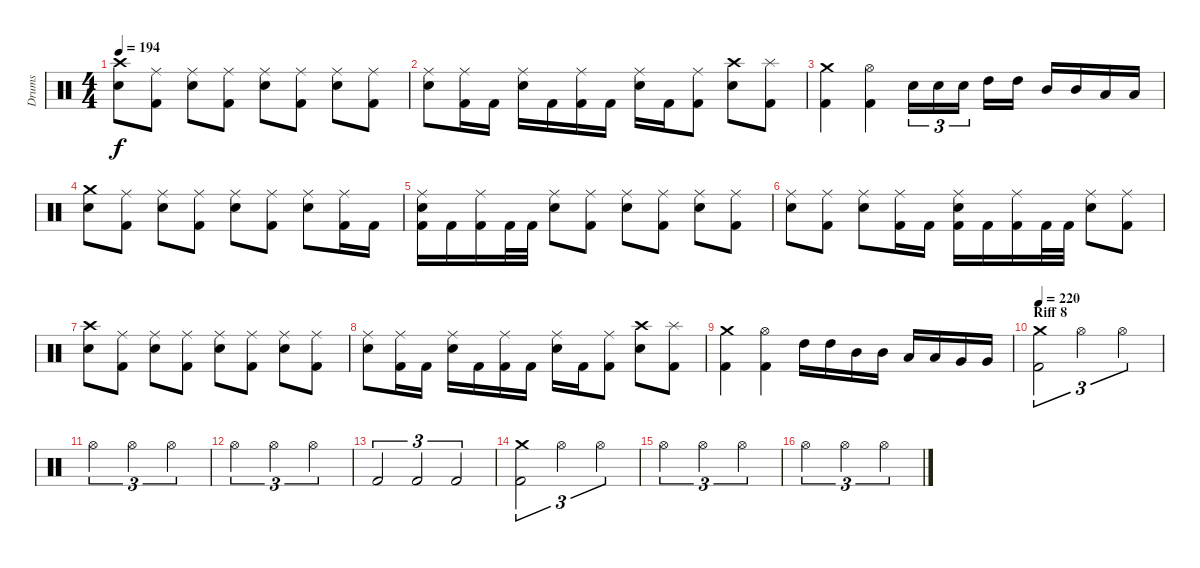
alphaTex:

\track ("Drums" "Drums") {instrument percussion}
\staff {score}
\articulation defaults
\ts (4 4)
\tempo 194
\clef neutral
\ks c
("Crash high (hit)" "Electric Snare (hit)").8{dy f} ("Ride (middle)" "Kick (hit) 2").8 ("Ride (middle)" "Electric Snare (hit)").8 ("Ride (middle)" "Kick (hit) 2").8 ("Ride (middle)" "Electric Snare (hit)").8 ("Ride (middle)" "Kick (hit) 2").8 ("Ride (middle)" "Electric Snare (hit)").8 ("Ride (middle)" "Kick (hit) 2").8 |
("Ride (middle)" "Electric Snare (hit)").8 ("Ride (middle)" "Kick (hit) 2").16 "Kick (hit) 2".16 ("Ride (middle)" "Electric Snare (hit)").16 "Kick (hit) 2".16 ("Ride (middle)" "Kick (hit) 2").16 "Kick (hit) 2".16 ("Ride (middle)" "Electric Snare (hit)").16 "Kick (hit) 2".16 ("Ride (middle)" "Kick (hit) 2").8 ("Crash high (hit)" "Electric Snare (hit)").8 ("Splash (hit)" "Kick (hit) 2").8 |
("Crash medium (hit)" "Kick (hit) 2").4 ("Hi-Hat (open)" "Kick (hit) 2").4 "Electric Snare (hit)".16{tu (3 2)} "Electric Snare (hit)".16{tu (3 2)} "Electric Snare (hit)".16{tu (3 2)} "High Tom (hit)".16 "High Tom (hit)".16 "Mid Tom (hit)".16 "Mid Tom (hit)".16 "Low Tom (hit)".16 "Low Tom (hit)".16 |
("Crash medium (hit)" "Electric Snare (hit)").8 ("Ride (middle)" "Kick (hit) 2").8 ("Ride (middle)" "Electric Snare (hit)").8 ("Ride (middle)" "Kick (hit) 2").8 ("Ride (middle)" "Electric Snare (hit)").8 ("Ride (middle)" "Kick (hit) 2").8 ("Ride (middle)" "Electric Snare (hit)").8 ("Ride (middle)" "Kick (hit) 2").16 "Kick (hit) 2".16 |
("Ride (middle)" "Electric Snare (hit)" "Kick (hit) 2").16 "Kick (hit) 2".16 ("Ride (middle)" "Kick (hit) 2").16 "Kick (hit) 2".32 "Kick (hit) 2".32 ("Ride (middle)" "Electric Snare (hit)").8 ("Ride (middle)" "Kick (hit) 2").8 ("Ride (middle)" "Electric Snare (hit)").8 ("Ride (middle)" "Kick (hit) 2").8 ("Ride (middle)" "Electric Snare (hit)").8 ("Ride (middle)" "Kick (hit) 2").8 |
("Ride (middle)" "Electric Snare (hit)").8 ("Ride (middle)" "Kick (hit) 2").8 ("Ride (middle)" "Electric Snare (hit)").8 ("Ride (middle)" "Kick (hit) 2").16 "Kick (hit) 2".16 ("Ride (middle)" "Electric Snare (hit)" "Kick (hit) 2").16 "Kick (hit) 2".16 ("Ride (middle)" "Kick (hit) 2").16 "Kick (hit) 2".32 "Kick (hit) 2".32 ("Ride (middle)" "Electric Snare (hit)").8 ("Ride (middle)" "Kick (hit) 2").8 |
("Crash high (hit)" "Electric Snare (hit)").8 ("Ride (middle)" "Kick (hit) 2").8 ("Ride (middle)" "Electric Snare (hit)").8 ("Ride (middle)" "Kick (hit) 2").8 ("Ride (middle)" "Electric Snare (hit)").8 ("Ride (middle)" "Kick (hit) 2").8 ("Ride (middle)" "Electric Snare (hit)").8 ("Ride (middle)" "Kick (hit) 2").8 |
("Ride (middle)" "Electric Snare (hit)").8 ("Ride (middle)" "Kick (hit) 2").16 "Kick (hit) 2".16 ("Ride (middle)" "Electric Snare (hit)").16 "Kick (hit) 2".16 ("Ride (middle)" "Kick (hit) 2").16 "Kick (hit) 2".16 ("Ride (middle)" "Electric Snare (hit)").16 "Kick (hit) 2".16 ("Ride (middle)" "Kick (hit) 2").8 ("Crash high (hit)" "Electric Snare (hit)").8 ("Splash (hit)" "Kick (hit) 2").8 |
("Crash medium (hit)" "Kick (hit) 2").4 ("Hi-Hat (open)" "Kick (hit) 2").4 "High Tom (hit)".16 "High Tom (hit)".16 "Mid Tom (hit)".16 "Mid Tom (hit)".16 "Low Tom (hit)".16 "Low Tom (hit)".16 "Very Low Tom (hit)".16 "Very Low Tom (hit)".16 |
\section ("" "Riff 8")
\tempo 220
("Crash medium (hit)" "Kick (hit) 2").2{tu (3 2)} "Hi-Hat (open)".2{tu (3 2)} "Hi-Hat (open)".2{tu (3 2)} |
"Hi-Hat (open)".2{tu (3 2)} "Hi-Hat (open)".2{tu (3 2)} "Hi-Hat (open)".2{tu (3 2)} |
"Hi-Hat (open)".2{tu (3 2)} "Hi-Hat (open)".2{tu (3 2)} "Hi-Hat (open)".2{tu (3 2)} |
"Kick (hit) 2".2{tu (3 2)} "Kick (hit) 2".2{tu (3 2)} "Kick (hit) 2".2{tu (3 2)} |
("Crash medium (hit)" "Kick (hit) 2").2{tu (3 2)} "Hi-Hat (open)".2{tu (3 2)} "Hi-Hat (open)".2{tu (3 2)} |
"Hi-Hat (open)".2{tu (3 2)} "Hi-Hat (open)".2{tu (3 2)} "Hi-Hat (open)".2{tu (3 2)} |
"Hi-Hat (open)".2{tu (3 2)} "Hi-Hat (open)".2{tu (3 2)} "Hi-Hat (open)".2{tu (3 2)}
